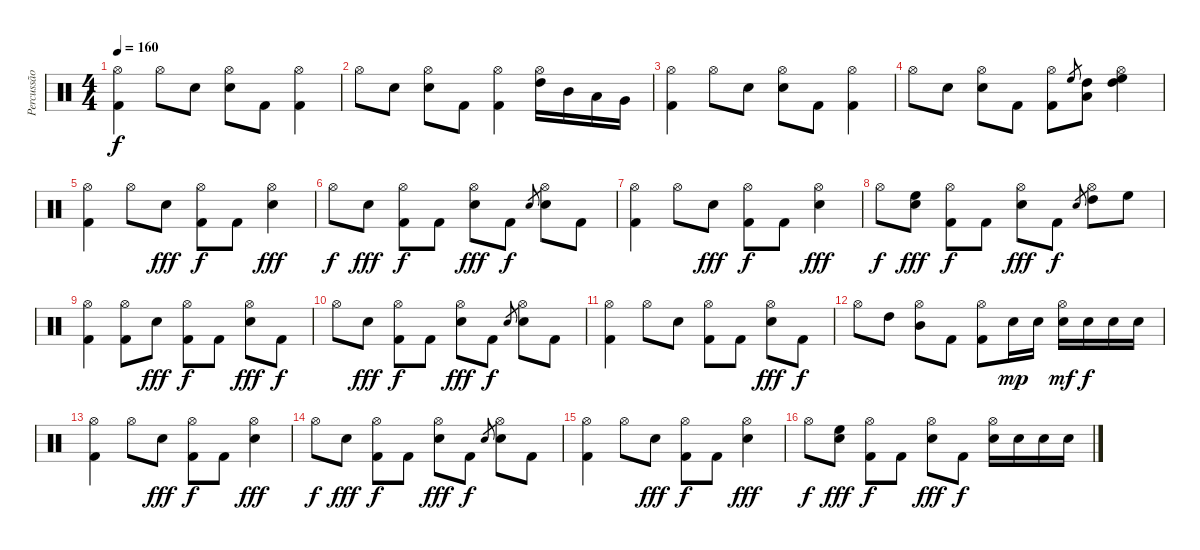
\track ("Percussão" "Percussão") {instrument percussion}
\staff {score}
\articulation defaults
\ts (4 4)
\tempo 160
\clef neutral
\ks c
("Hi-Hat (open)" "Kick (hit) 2").4{dy f} "Hi-Hat (open)".8 "Electric Snare (hit)".8 ("Hi-Hat (open)" "Electric Snare (hit)").8 "Kick (hit) 2".8 ("Hi-Hat (open)" "Kick (hit) 2").4 |
"Hi-Hat (open)".8 "Electric Snare (hit)".8 ("Hi-Hat (open)" "Electric Snare (hit)").8 "Kick (hit) 2".8 ("Hi-Hat (open)" "Kick (hit) 2").4 ("Hi-Hat (open)" "High Tom (hit)").16 "Mid Tom (hit)".16 "Low Tom (hit)".16 "Very Low Tom (hit)".16 |
("Hi-Hat (open)" "Kick (hit) 2").4 "Hi-Hat (open)".8 "Electric Snare (hit)".8 ("Hi-Hat (open)" "Electric Snare (hit)").8 "Kick (hit) 2".8 ("Hi-Hat (open)" "Kick (hit) 2").4 |
"Hi-Hat (open)".8 "Electric Snare (hit)".8 ("Hi-Hat (open)" "Electric Snare (hit)").8 "Kick (hit) 2".8 ("Hi-Hat (open)" "Kick (hit) 2").8 "High Floor Tom (hit)".8{gr} ("Low Tom (hit)" "High Tom (hit)").8 ("Hi-Hat (open)" "High Tom (hit)" "High Floor Tom (hit)").4 |
("Hi-Hat (open)" "Kick (hit) 2").4 "Hi-Hat (open)".8 "Electric Snare (hit)".8{dy fff} ("Hi-Hat (open)" "Kick (hit) 2").8{dy f} "Kick (hit) 2".8 ("Hi-Hat (open)" "Electric Snare (hit)").4{dy fff} |
"Hi-Hat (open)".8{dy f} "Electric Snare (hit)".8{dy fff} ("Hi-Hat (open)" "Kick (hit) 2").8{dy f} "Kick (hit) 2".8 ("Hi-Hat (open)" "Electric Snare (hit)").8{dy fff} "Kick (hit) 2".8{dy f} "Electric Snare (hit)".8{gr} ("Hi-Hat (open)" "Electric Snare (hit)").8 "Kick (hit) 2".8 |
("Hi-Hat (open)" "Kick (hit) 2").4 "Hi-Hat (open)".8 "Electric Snare (hit)".8{dy fff} ("Hi-Hat (open)" "Kick (hit) 2").8{dy f} "Kick (hit) 2".8 ("Hi-Hat (open)" "Electric Snare (hit)").4{dy fff} |
"Hi-Hat (open)".8{dy f} ("High Floor Tom (hit)" "Electric Snare (hit)").8{dy fff} ("Hi-Hat (open)" "Kick (hit) 2").8{dy f} "Kick (hit) 2".8 ("Hi-Hat (open)" "Electric Snare (hit)").8{dy fff} "Kick (hit) 2".8{dy f} "Electric Snare (hit)".8{gr} ("Hi-Hat (open)" "High Tom (hit)").8 "High Floor Tom (hit)".8 |
("Hi-Hat (open)" "Kick (hit) 2").4 ("Hi-Hat (open)" "Kick (hit) 2").8 "Electric Snare (hit)".8{dy fff} ("Hi-Hat (open)" "Kick (hit) 2").8{dy f} "Kick (hit) 2".8 ("Hi-Hat (open)" "Electric Snare (hit)").8{dy fff} "Kick (hit) 2".8{dy f} |
"Hi-Hat (open)".8 "Electric Snare (hit)".8{dy fff} ("Hi-Hat (open)" "Kick (hit) 2").8{dy f} "Kick (hit) 2".8 ("Hi-Hat (open)" "Electric Snare (hit)").8{dy fff} "Kick (hit) 2".8{dy f} "Electric Snare (hit)".8{gr} ("Hi-Hat (open)" "Electric Snare (hit)").8 "Kick (hit) 2".8 |
("Hi-Hat (open)" "Kick (hit) 2").4 "Hi-Hat (open)".8 "Electric Snare (hit)".8 ("Hi-Hat (open)" "Kick (hit) 2").8 "Kick (hit) 2".8 ("Hi-Hat (open)" "Electric Snare (hit)").8{dy fff} "Kick (hit) 2".8{dy f} |
"Hi-Hat (open)".8 "High Tom (hit)".8 ("Hi-Hat (open)" "Mid Tom (hit)").8 "Kick (hit) 2".8 ("Hi-Hat (open)" "Kick (hit) 2").8 "Electric Snare (hit)".16{dy mp} "Electric Snare (hit)".16 ("Hi-Hat (open)" "Electric Snare (hit)").16{dy mf} "Electric Snare (hit)".16{dy f} "Electric Snare (hit)".16 "Electric Snare (hit)".16 |
("Hi-Hat (open)" "Kick (hit) 2").4 "Hi-Hat (open)".8 "Electric Snare (hit)".8{dy fff} ("Hi-Hat (open)" "Kick (hit) 2").8{dy f} "Kick (hit) 2".8 ("Hi-Hat (open)" "Electric Snare (hit)").4{dy fff} |
"Hi-Hat (open)".8{dy f} "Electric Snare (hit)".8{dy fff} ("Hi-Hat (open)" "Kick (hit) 2").8{dy f} "Kick (hit) 2".8 ("Hi-Hat (open)" "Electric Snare (hit)").8{dy fff} "Kick (hit) 2".8{dy f} "Electric Snare (hit)".8{gr} ("Hi-Hat (open)" "Electric Snare (hit)").8 "Kick (hit) 2".8 |
("Hi-Hat (open)" "Kick (hit) 2").4 "Hi-Hat (open)".8 "Electric Snare (hit)".8{dy fff} ("Hi-Hat (open)" "Kick (hit) 2").8{dy f} "Kick (hit) 2".8 ("Hi-Hat (open)" "Electric Snare (hit)").4{dy fff} |
"Hi-Hat (open)".8{dy f} ("High Floor Tom (hit)" "Electric Snare (hit)").8{dy fff} ("Hi-Hat (open)" "Kick (hit) 2").8{dy f} "Kick (hit) 2".8 ("Hi-Hat (open)" "Electric Snare (hit)").8{dy fff} "Kick (hit) 2".8{dy f} ("Hi-Hat (open)" "Electric Snare (hit)").16 "Electric Snare (hit)".16 "Electric Snare (hit)".16 "Electric Snare (hit)".16
